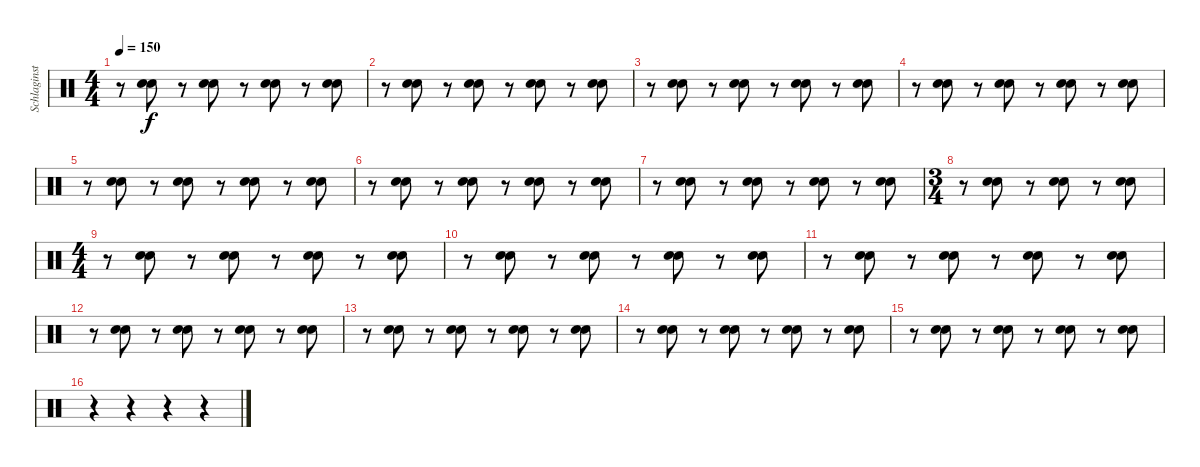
\track ("Schlaginstrumente - Auswahl" "Schlaginst") {instrument percussion}
\staff {score}
\articulation defaults
\ts (4 4)
\tempo 150
\clef neutral
\ks c
r.8{dy f} ("Electric Snare (hit)" "Electric Snare (hit)").8 r.8 ("Electric Snare (hit)" "Electric Snare (hit)").8 r.8 ("Electric Snare (hit)" "Electric Snare (hit)").8 r.8 ("Electric Snare (hit)" "Electric Snare (hit)").8 |
r.8 ("Electric Snare (hit)" "Electric Snare (hit)").8 r.8 ("Electric Snare (hit)" "Electric Snare (hit)").8 r.8 ("Electric Snare (hit)" "Electric Snare (hit)").8 r.8 ("Electric Snare (hit)" "Electric Snare (hit)").8 |
r.8 ("Electric Snare (hit)" "Electric Snare (hit)").8 r.8 ("Electric Snare (hit)" "Electric Snare (hit)").8 r.8 ("Electric Snare (hit)" "Electric Snare (hit)").8 r.8 ("Electric Snare (hit)" "Electric Snare (hit)").8 |
r.8 ("Electric Snare (hit)" "Electric Snare (hit)").8 r.8 ("Electric Snare (hit)" "Electric Snare (hit)").8 r.8 ("Electric Snare (hit)" "Electric Snare (hit)").8 r.8 ("Electric Snare (hit)" "Electric Snare (hit)").8 |
r.8 ("Electric Snare (hit)" "Electric Snare (hit)").8 r.8 ("Electric Snare (hit)" "Electric Snare (hit)").8 r.8 ("Electric Snare (hit)" "Electric Snare (hit)").8 r.8 ("Electric Snare (hit)" "Electric Snare (hit)").8 |
r.8 ("Electric Snare (hit)" "Electric Snare (hit)").8 r.8 ("Electric Snare (hit)" "Electric Snare (hit)").8 r.8 ("Electric Snare (hit)" "Electric Snare (hit)").8 r.8 ("Electric Snare (hit)" "Electric Snare (hit)").8 |
r.8 ("Electric Snare (hit)" "Electric Snare (hit)").8 r.8 ("Electric Snare (hit)" "Electric Snare (hit)").8 r.8 ("Electric Snare (hit)" "Electric Snare (hit)").8 r.8 ("Electric Snare (hit)" "Electric Snare (hit)").8 |
\ts (3 4)
r.8 ("Electric Snare (hit)" "Electric Snare (hit)").8 r.8 ("Electric Snare (hit)" "Electric Snare (hit)").8 r.8 ("Electric Snare (hit)" "Electric Snare (hit)").8 |
\ts (4 4)
r.8 ("Electric Snare (hit)" "Electric Snare (hit)").8 r.8 ("Electric Snare (hit)" "Electric Snare (hit)").8 r.8 ("Electric Snare (hit)" "Electric Snare (hit)").8 r.8 ("Electric Snare (hit)" "Electric Snare (hit)").8 |
r.8 ("Electric Snare (hit)" "Electric Snare (hit)").8 r.8 ("Electric Snare (hit)" "Electric Snare (hit)").8 r.8 ("Electric Snare (hit)" "Electric Snare (hit)").8 r.8 ("Electric Snare (hit)" "Electric Snare (hit)").8 |
r.8 ("Electric Snare (hit)" "Electric Snare (hit)").8 r.8 ("Electric Snare (hit)" "Electric Snare (hit)").8 r.8 ("Electric Snare (hit)" "Electric Snare (hit)").8 r.8 ("Electric Snare (hit)" "Electric Snare (hit)").8 |
r.8 ("Electric Snare (hit)" "Electric Snare (hit)").8 r.8 ("Electric Snare (hit)" "Electric Snare (hit)").8 r.8 ("Electric Snare (hit)" "Electric Snare (hit)").8 r.8 ("Electric Snare (hit)" "Electric Snare (hit)").8 |
r.8 ("Electric Snare (hit)" "Electric Snare (hit)").8 r.8 ("Electric Snare (hit)" "Electric Snare (hit)").8 r.8 ("Electric Snare (hit)" "Electric Snare (hit)").8 r.8 ("Electric Snare (hit)" "Electric Snare (hit)").8 |
r.8 ("Electric Snare (hit)" "Electric Snare (hit)").8 r.8 ("Electric Snare (hit)" "Electric Snare (hit)").8 r.8 ("Electric Snare (hit)" "Electric Snare (hit)").8 r.8 ("Electric Snare (hit)" "Electric Snare (hit)").8 |
r.8 ("Electric Snare (hit)" "Electric Snare (hit)").8 r.8 ("Electric Snare (hit)" "Electric Snare (hit)").8 r.8 ("Electric Snare (hit)" "Electric Snare (hit)").8 r.8 ("Electric Snare (hit)" "Electric Snare (hit)").8 |
r.4 r.4 r.4 r.4
